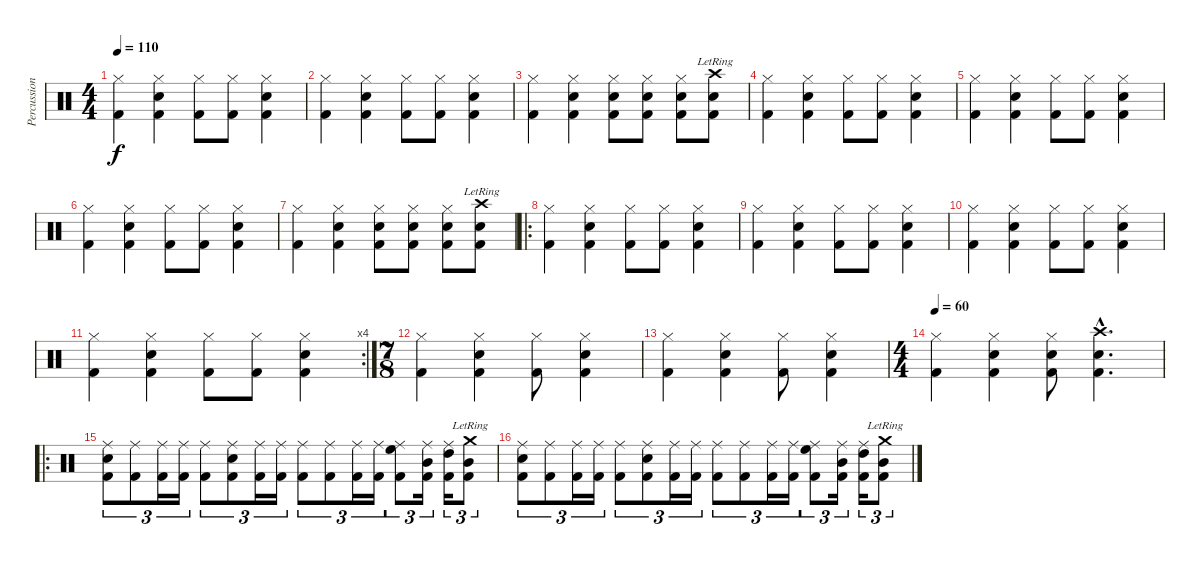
\track ("Percussion" "Percussion") {instrument percussion}
\staff {score}
\articulation defaults
\ts (4 4)
\tempo 110
\clef neutral
\ks c
("Hi-Hat (closed)" "Kick (hit) 2").4{dy f} ("Hi-Hat (closed)" "Snare (hit) 2" "Kick (hit) 2").4 ("Hi-Hat (closed)" "Kick (hit) 2").8 ("Hi-Hat (closed)" "Kick (hit) 2").8 ("Hi-Hat (closed)" "Snare (hit) 2" "Kick (hit) 2").4 |
("Hi-Hat (closed)" "Kick (hit) 2").4 ("Hi-Hat (closed)" "Snare (hit) 2" "Kick (hit) 2").4 ("Hi-Hat (closed)" "Kick (hit) 2").8 ("Hi-Hat (closed)" "Kick (hit) 2").8 ("Hi-Hat (closed)" "Snare (hit) 2" "Kick (hit) 2").4 |
("Hi-Hat (closed)" "Kick (hit) 2").4 ("Hi-Hat (closed)" "Snare (hit) 2" "Kick (hit) 2").4 ("Hi-Hat (closed)" "Snare (hit) 2" "Kick (hit) 2").8 ("Hi-Hat (closed)" "Snare (hit) 2" "Kick (hit) 2").8 ("Hi-Hat (closed)" "Snare (hit) 2" "Kick (hit) 2").8 ("Crash high (hit)"{lr} "Electric Snare (hit)" "Kick (hit) 2").8 |
("Hi-Hat (closed)" "Kick (hit) 2").4 ("Hi-Hat (closed)" "Snare (hit) 2" "Kick (hit) 2").4 ("Hi-Hat (closed)" "Kick (hit) 2").8 ("Hi-Hat (closed)" "Kick (hit) 2").8 ("Hi-Hat (closed)" "Snare (hit) 2" "Kick (hit) 2").4 |
("Hi-Hat (closed)" "Kick (hit) 2").4 ("Hi-Hat (closed)" "Snare (hit) 2" "Kick (hit) 2").4 ("Hi-Hat (closed)" "Kick (hit) 2").8 ("Hi-Hat (closed)" "Kick (hit) 2").8 ("Hi-Hat (closed)" "Snare (hit) 2" "Kick (hit) 2").4 |
("Hi-Hat (closed)" "Kick (hit) 2").4 ("Hi-Hat (closed)" "Snare (hit) 2" "Kick (hit) 2").4 ("Hi-Hat (closed)" "Kick (hit) 2").8 ("Hi-Hat (closed)" "Kick (hit) 2").8 ("Hi-Hat (closed)" "Snare (hit) 2" "Kick (hit) 2").4 |
("Hi-Hat (closed)" "Kick (hit) 2").4 ("Hi-Hat (closed)" "Snare (hit) 2" "Kick (hit) 2").4 ("Hi-Hat (closed)" "Snare (hit) 2" "Kick (hit) 2").8 ("Hi-Hat (closed)" "Snare (hit) 2" "Kick (hit) 2").8 ("Hi-Hat (closed)" "Snare (hit) 2" "Kick (hit) 2").8 ("Crash high (hit)"{lr} "Electric Snare (hit)" "Kick (hit) 2").8 |
\ro
("Hi-Hat (closed)" "Kick (hit) 2").4 ("Hi-Hat (closed)" "Snare (hit) 2" "Kick (hit) 2").4 ("Hi-Hat (closed)" "Kick (hit) 2").8 ("Hi-Hat (closed)" "Kick (hit) 2").8 ("Hi-Hat (closed)" "Snare (hit) 2" "Kick (hit) 2").4 |
("Hi-Hat (closed)" "Kick (hit) 2").4 ("Hi-Hat (closed)" "Snare (hit) 2" "Kick (hit) 2").4 ("Hi-Hat (closed)" "Kick (hit) 2").8 ("Hi-Hat (closed)" "Kick (hit) 2").8 ("Hi-Hat (closed)" "Snare (hit) 2" "Kick (hit) 2").4 |
("Hi-Hat (closed)" "Kick (hit) 2").4 ("Hi-Hat (closed)" "Snare (hit) 2" "Kick (hit) 2").4 ("Hi-Hat (closed)" "Kick (hit) 2").8 ("Hi-Hat (closed)" "Kick (hit) 2").8 ("Hi-Hat (closed)" "Snare (hit) 2" "Kick (hit) 2").4 |
\rc 4
("Hi-Hat (closed)" "Kick (hit) 2").4 ("Hi-Hat (closed)" "Snare (hit) 2" "Kick (hit) 2").4 ("Hi-Hat (closed)" "Kick (hit) 2").8 ("Hi-Hat (closed)" "Kick (hit) 2").8 ("Hi-Hat (closed)" "Snare (hit) 2" "Kick (hit) 2").4 |
\ts (7 8)
("Hi-Hat (closed)" "Kick (hit) 2").4 ("Hi-Hat (closed)" "Snare (hit) 2" "Kick (hit) 2").4 ("Hi-Hat (closed)" "Kick (hit) 2").8 ("Hi-Hat (closed)" "Snare (hit) 2" "Kick (hit) 2").4 |
("Hi-Hat (closed)" "Kick (hit) 2").4 ("Hi-Hat (closed)" "Snare (hit) 2" "Kick (hit) 2").4 ("Hi-Hat (closed)" "Kick (hit) 2").8 ("Hi-Hat (closed)" "Snare (hit) 2" "Kick (hit) 2").4 |
\ts (4 4)
\tempo 60
("Hi-Hat (closed)" "Kick (hit) 2").4 ("Hi-Hat (closed)" "Snare (hit) 2" "Kick (hit) 2").4 ("Hi-Hat (closed)" "Snare (hit) 2" "Kick (hit) 2").8 ("Crash high (hit)"{hac} "Snare (hit) 2"{hac} "Kick (hit) 2"{hac}).4{d} |
\ro
("Ride (middle)" "Snare (hit) 2" "Kick (hit) 2").8{tu (3 2)} ("Ride (middle)" "Kick (hit) 2").8{tu (3 2)} ("Ride (middle)" "Kick (hit) 2").16{tu (3 2)} ("Ride (middle)" "Kick (hit) 2").16{tu (3 2)} ("Ride (middle)" "Kick (hit) 2").8{tu (3 2)} ("Ride (middle)" "Electric Snare (hit)" "Kick (hit) 2").8{tu (3 2)} ("Ride (middle)" "Kick (hit) 2").16{tu (3 2)} ("Ride (middle)" "Kick (hit) 2").16{tu (3 2)} ("Ride (middle)" "Kick (hit) 2").8{tu (3 2)} ("Ride (middle)" "Kick (hit) 2").8{tu (3 2)} ("Ride (middle)" "Kick (hit) 2").16{tu (3 2)} ("Ride (middle)" "Kick (hit) 2").16{tu (3 2)} ("Ride (middle)" "High Floor Tom (hit)" "Kick (hit) 2").8{tu (3 2)} ("Ride (middle)" "Mid Tom (hit)" "Kick (hit) 2").16{tu (3 2)} ("Ride (middle)" "High Tom (hit)" "Kick (hit) 2").16{tu (3 2)} ("Crash medium (hit)"{lr} "Mid Tom (hit)" "Kick (hit) 2").8{tu (3 2)} |
("Ride (middle)" "Snare (hit) 2" "Kick (hit) 2").8{tu (3 2)} ("Ride (middle)" "Kick (hit) 2").8{tu (3 2)} ("Ride (middle)" "Kick (hit) 2").16{tu (3 2)} ("Ride (middle)" "Kick (hit) 2").16{tu (3 2)} ("Ride (middle)" "Kick (hit) 2").8{tu (3 2)} ("Ride (middle)" "Electric Snare (hit)" "Kick (hit) 2").8{tu (3 2)} ("Ride (middle)" "Kick (hit) 2").16{tu (3 2)} ("Ride (middle)" "Kick (hit) 2").16{tu (3 2)} ("Ride (middle)" "Kick (hit) 2").8{tu (3 2)} ("Ride (middle)" "Kick (hit) 2").8{tu (3 2)} ("Ride (middle)" "Kick (hit) 2").16{tu (3 2)} ("Ride (middle)" "Kick (hit) 2").16{tu (3 2)} ("Ride (middle)" "High Floor Tom (hit)" "Kick (hit) 2").8{tu (3 2)} ("Ride (middle)" "Mid Tom (hit)" "Kick (hit) 2").16{tu (3 2)} ("Ride (middle)" "High Tom (hit)" "Kick (hit) 2").16{tu (3 2)} ("Crash medium (hit)"{lr} "Mid Tom (hit)" "Kick (hit) 2").8{tu (3 2)}
